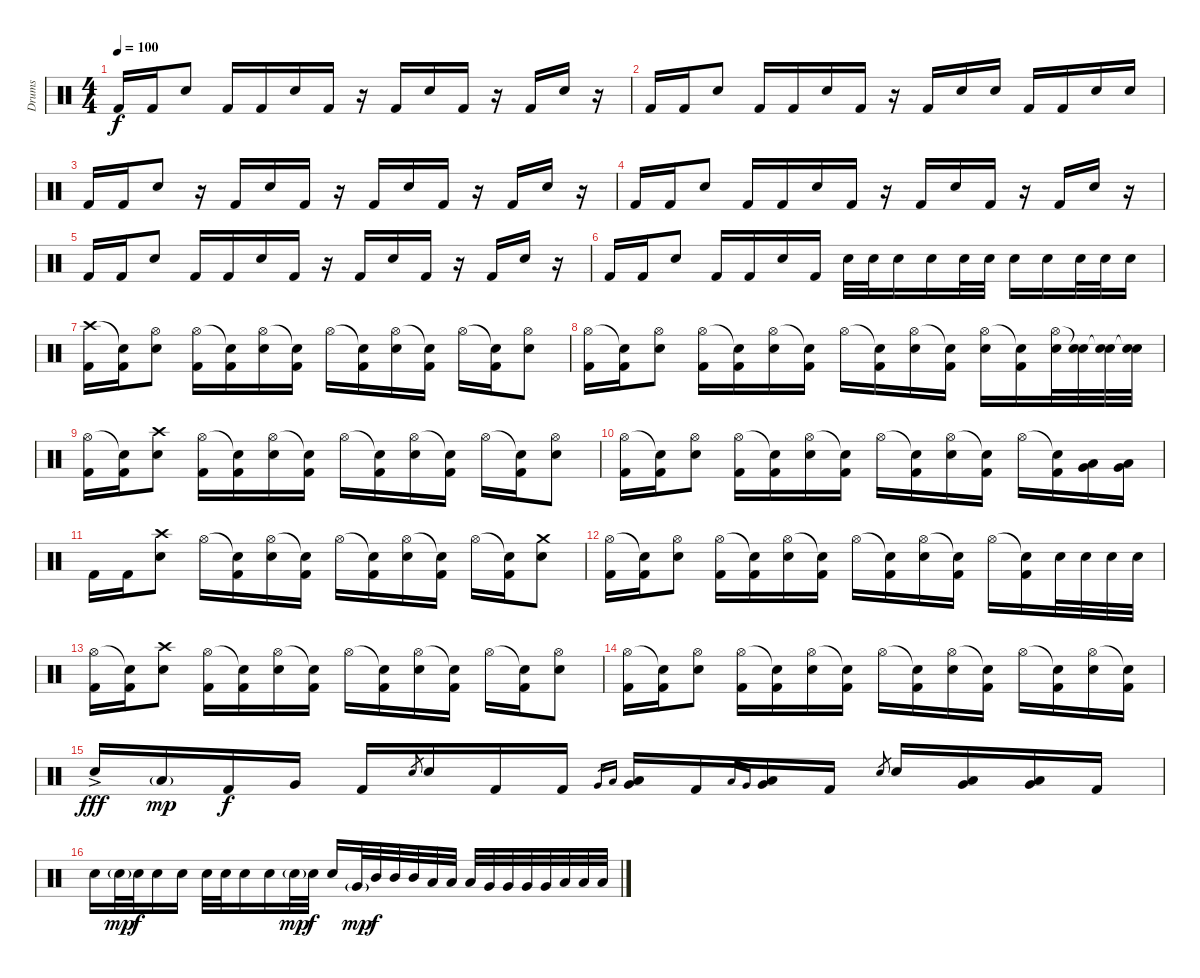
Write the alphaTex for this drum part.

\track ("Drums" "Drums") {instrument percussion}
\staff {score}
\articulation defaults
\ts (4 4)
\tempo 100
\clef neutral
\ks c "Kick (hit) 2".16{dy f} "Kick (hit) 2".16 "Electric Snare (hit)".8 "Kick (hit) 2".16 "Kick (hit) 2".16 "Electric Snare (hit)".16 "Kick (hit) 2".16
r.16 "Kick (hit) 2".16 "Electric Snare (hit)".16 "Kick (hit) 2".16 r.16 "Kick (hit) 2".16 "Electric Snare (hit)".16 r.16 |
"Kick (hit) 2".16 "Kick (hit) 2".16 "Electric Snare (hit)".8 "Kick (hit) 2".16 "Kick (hit) 2".16 "Electric Snare (hit)".16 "Kick (hit) 2".16 r.16 "Kick (hit) 2".16 "Electric Snare (hit)".16 "Electric Snare (hit)".16 "Kick (hit) 2".16 "Kick (hit) 2".16 "Electric Snare (hit)".16 "Electric Snare (hit)".16 |
"Kick (hit) 2".16 "Kick (hit) 2".16 "Electric Snare (hit)".8 r.16 "Kick (hit) 2".16 "Electric Snare (hit)".16 "Kick (hit) 2".16 r.16 "Kick (hit) 2".16 "Electric Snare (hit)".16 "Kick (hit) 2".16 r.16 "Kick (hit) 2".16 "Electric Snare (hit)".16 r.16 |
"Kick (hit) 2".16 "Kick (hit) 2".16 "Electric Snare (hit)".8 "Kick (hit) 2".16 "Kick (hit) 2".16 "Electric Snare (hit)".16 "Kick (hit) 2".16 r.16 "Kick (hit) 2".16 "Electric Snare (hit)".16 "Kick (hit) 2".16 r.16 "Kick (hit) 2".16 "Electric Snare (hit)".16 r.16 |
"Kick (hit) 2".16 "Kick (hit) 2".16 "Electric Snare (hit)".8 "Kick (hit) 2".16 "Kick (hit) 2".16 "Electric Snare (hit)".16 "Kick (hit) 2".16 r.16 "Kick (hit) 2".16 "Electric Snare (hit)".16 "Kick (hit) 2".16 r.16 "Kick (hit) 2".16 "Electric Snare (hit)".16 r.16 |
"Kick (hit) 2".16 "Kick (hit) 2".16 "Electric Snare (hit)".8 "Kick (hit) 2".16 "Kick (hit) 2".16 "Electric Snare (hit)".16 "Kick (hit) 2".16 "Electric Snare (hit)".32 "Electric Snare (hit)".32 "Electric Snare (hit)".16 "Electric Snare (hit)".16 "Electric Snare (hit)".32 "Electric Snare (hit)".32 "Electric Snare (hit)".16 "Electric Snare (hit)".16 "Electric Snare (hit)".32 "Electric Snare (hit)".32 "Electric Snare (hit)".16 |
("Crash high (hit)" "Kick (hit) 2").16 ("Snare (hit)"{t} "Kick (hit) 2").16 ("Hi-Hat (open)" "Electric Snare (hit)").8 ("Hi-Hat (open)" "Kick (hit) 2").16 ("Snare (hit)"{t} "Kick (hit) 2").16 ("Hi-Hat (open)" "Electric Snare (hit)").16 ("Snare (hit)"{t} "Kick (hit) 2").16 "Hi-Hat (open)".16 ("Snare (hit)"{t} "Kick (hit) 2").16 ("Hi-Hat (open)" "Electric Snare (hit)").16 ("Snare (hit)"{t} "Kick (hit) 2").16 "Hi-Hat (open)".16 ("Snare (hit)"{t} "Kick (hit) 2").16 ("Hi-Hat (open)" "Electric Snare (hit)").8 |
("Hi-Hat (open)" "Kick (hit) 2").16 ("Snare (hit)"{t} "Kick (hit) 2").16 ("Hi-Hat (open)" "Electric Snare (hit)").8 ("Hi-Hat (open)" "Kick (hit) 2").16 ("Snare (hit)"{t} "Kick (hit) 2").16 ("Hi-Hat (open)" "Electric Snare (hit)").16 ("Snare (hit)"{t} "Kick (hit) 2").16 "Hi-Hat (open)".16 ("Snare (hit)"{t} "Kick (hit) 2").16 ("Hi-Hat (open)" "Electric Snare (hit)").16 ("Snare (hit)"{t} "Kick (hit) 2").16 ("Hi-Hat (open)" "Electric Snare (hit)").16 ("Snare (hit)"{t} "Kick (hit) 2").16 ("Hi-Hat (open)" "Electric Snare (hit)").32 ("Snare (hit)"{t} "Electric Snare (hit)").32 ("Snare (hit)"{t} "Electric Snare (hit)").32 ("Snare (hit)"{t} "Electric Snare (hit)").32 |
("Hi-Hat (open)" "Kick (hit) 2").16 ("Snare (hit)"{t} "Kick (hit) 2").16 ("Crash high (hit)" "Electric Snare (hit)").8 ("Hi-Hat (open)" "Kick (hit) 2").16 ("Snare (hit)"{t} "Kick (hit) 2").16 ("Hi-Hat (open)" "Electric Snare (hit)").16 ("Snare (hit)"{t} "Kick (hit) 2").16 "Hi-Hat (open)".16 ("Snare (hit)"{t} "Kick (hit) 2").16 ("Hi-Hat (open)" "Electric Snare (hit)").16 ("Snare (hit)"{t} "Kick (hit) 2").16 "Hi-Hat (open)".16 ("Snare (hit)"{t} "Kick (hit) 2").16 ("Hi-Hat (open)" "Electric Snare (hit)").8 |
("Hi-Hat (open)" "Kick (hit) 2").16 ("Snare (hit)"{t} "Kick (hit) 2").16 ("Hi-Hat (open)" "Electric Snare (hit)").8 ("Hi-Hat (open)" "Kick (hit) 2").16 ("Snare (hit)"{t} "Kick (hit) 2").16 ("Hi-Hat (open)" "Electric Snare (hit)").16 ("Snare (hit)"{t} "Kick (hit) 2").16 "Hi-Hat (open)".16 ("Snare (hit)"{t} "Kick (hit) 2").16 ("Hi-Hat (open)" "Electric Snare (hit)").16 ("Snare (hit)"{t} "Kick (hit) 2").16 "Hi-Hat (open)".16 ("Snare (hit)"{t} "Kick (hit) 2").16 ("Low Tom (hit)" "Very Low Tom (hit)").16 ("Low Tom (hit)" "Very Low Tom (hit)").16 |
"Kick (hit) 2".16 "Kick (hit) 2".16 ("Crash high (hit)" "Electric Snare (hit)").8 "Hi-Hat (open)".16 ("Snare (hit)"{t} "Kick (hit) 2").16 ("Hi-Hat (open)" "Electric Snare (hit)").16 ("Snare (hit)"{t} "Kick (hit) 2").16 "Hi-Hat (open)".16 ("Snare (hit)"{t} "Kick (hit) 2").16 ("Hi-Hat (open)" "Electric Snare (hit)").16 ("Snare (hit)"{t} "Kick (hit) 2").16 "Hi-Hat (open)".16 ("Snare (hit)"{t} "Kick (hit) 2").16 ("Crash medium (hit)" "Electric Snare (hit)").8 |
("Hi-Hat (open)" "Kick (hit) 2").16 ("Snare (hit)"{t} "Kick (hit) 2").16 ("Hi-Hat (open)" "Electric Snare (hit)").8 ("Hi-Hat (open)" "Kick (hit) 2").16 ("Snare (hit)"{t} "Kick (hit) 2").16 ("Hi-Hat (open)" "Electric Snare (hit)").16 ("Snare (hit)"{t} "Kick (hit) 2").16 "Hi-Hat (open)".16 ("Snare (hit)"{t} "Kick (hit) 2").16 ("Hi-Hat (open)" "Electric Snare (hit)").16 ("Snare (hit)"{t} "Kick (hit) 2").16 "Hi-Hat (open)".16 ("Snare (hit)"{t} "Kick (hit) 2").16 "Electric Snare (hit)".32 "Electric Snare (hit)".32 "Electric Snare (hit)".32 "Electric Snare (hit)".32 |
("Hi-Hat (open)" "Kick (hit) 2").16 ("Snare (hit)"{t} "Kick (hit) 2").16 ("Crash high (hit)" "Electric Snare (hit)").8 ("Hi-Hat (open)" "Kick (hit) 2").16 ("Snare (hit)"{t} "Kick (hit) 2").16 ("Hi-Hat (open)" "Electric Snare (hit)").16 ("Snare (hit)"{t} "Kick (hit) 2").16 "Hi-Hat (open)".16 ("Snare (hit)"{t} "Kick (hit) 2").16 ("Hi-Hat (open)" "Electric Snare (hit)").16 ("Snare (hit)"{t} "Kick (hit) 2").16 "Hi-Hat (open)".16 ("Snare (hit)"{t} "Kick (hit) 2").16 ("Hi-Hat (open)" "Electric Snare (hit)").8 |
("Hi-Hat (open)" "Kick (hit) 2").16 ("Snare (hit)"{t} "Kick (hit) 2").16 ("Hi-Hat (open)" "Electric Snare (hit)").8 ("Hi-Hat (open)" "Kick (hit) 2").16 ("Snare (hit)"{t} "Kick (hit) 2").16 ("Hi-Hat (open)" "Electric Snare (hit)").16 ("Snare (hit)"{t} "Kick (hit) 2").16 "Hi-Hat (open)".16 ("Snare (hit)"{t} "Kick (hit) 2").16 ("Hi-Hat (open)" "Electric Snare (hit)").16 ("Snare (hit)"{t} "Kick (hit) 2").16 "Hi-Hat (open)".16 ("Snare (hit)"{t} "Kick (hit) 2").16 ("Hi-Hat (open)" "Electric Snare (hit)").16 ("Snare (hit)"{t} "Kick (hit) 2").16 |
"Electric Snare (hit)"{ac}.16{dy fff} "Low Tom (hit)"{g}.16{dy mp} "Kick (hit) 2".16{dy f} "Very Low Tom (hit)".16 "Kick (hit) 2".16 "Electric Snare (hit)".8{gr} "Electric Snare (hit)".16 "Kick (hit) 2".16 "Kick (hit) 2".16 "Very Low Tom (hit)".16{gr} "Low Tom (hit)".16{gr} ("Very Low Tom (hit)" "Low Tom (hit)").16 "Kick (hit) 2".16 "Low Floor Tom (hit)".16{gr} "Very Low Tom (hit)".16{gr} ("Low Floor Tom (hit)" "Very Low Tom (hit)").16 "Kick (hit) 2".16 "Electric Snare (hit)".8{gr} "Electric Snare (hit)".16 ("Very Low Tom (hit)" "Low Tom (hit)").16 ("Low Floor Tom (hit)" "Very Low Tom (hit)").16 "Kick (hit) 2".16 |
"Electric Snare (hit)".16 "Electric Snare (hit)"{g}.32{dy mp} "Electric Snare (hit)".32{dy f} "Electric Snare (hit)".16 "Electric Snare (hit)".16 "Electric Snare (hit)".32 "Electric Snare (hit)".32 "Electric Snare (hit)".16 "Electric Snare (hit)".16 "Electric Snare (hit)"{g}.32{dy mp} "Electric Snare (hit)".32{dy f} "Electric Snare (hit)".16 "Very Low Tom (hit)"{g}.32{dy mp} "Mid Tom (hit)".32{dy f} "Mid Tom (hit)".32 "Mid Tom (hit)".32 "Low Tom (hit)".32 "Low Tom (hit)".32 "Low Tom (hit)".32 "Very Low Tom (hit)".32 "Very Low Tom (hit)".32 "Very Low Tom (hit)".32 "Very Low Tom (hit)".32 "Low Floor Tom (hit)".32 "Low Floor Tom (hit)".32 "Low Floor Tom (hit)".32
